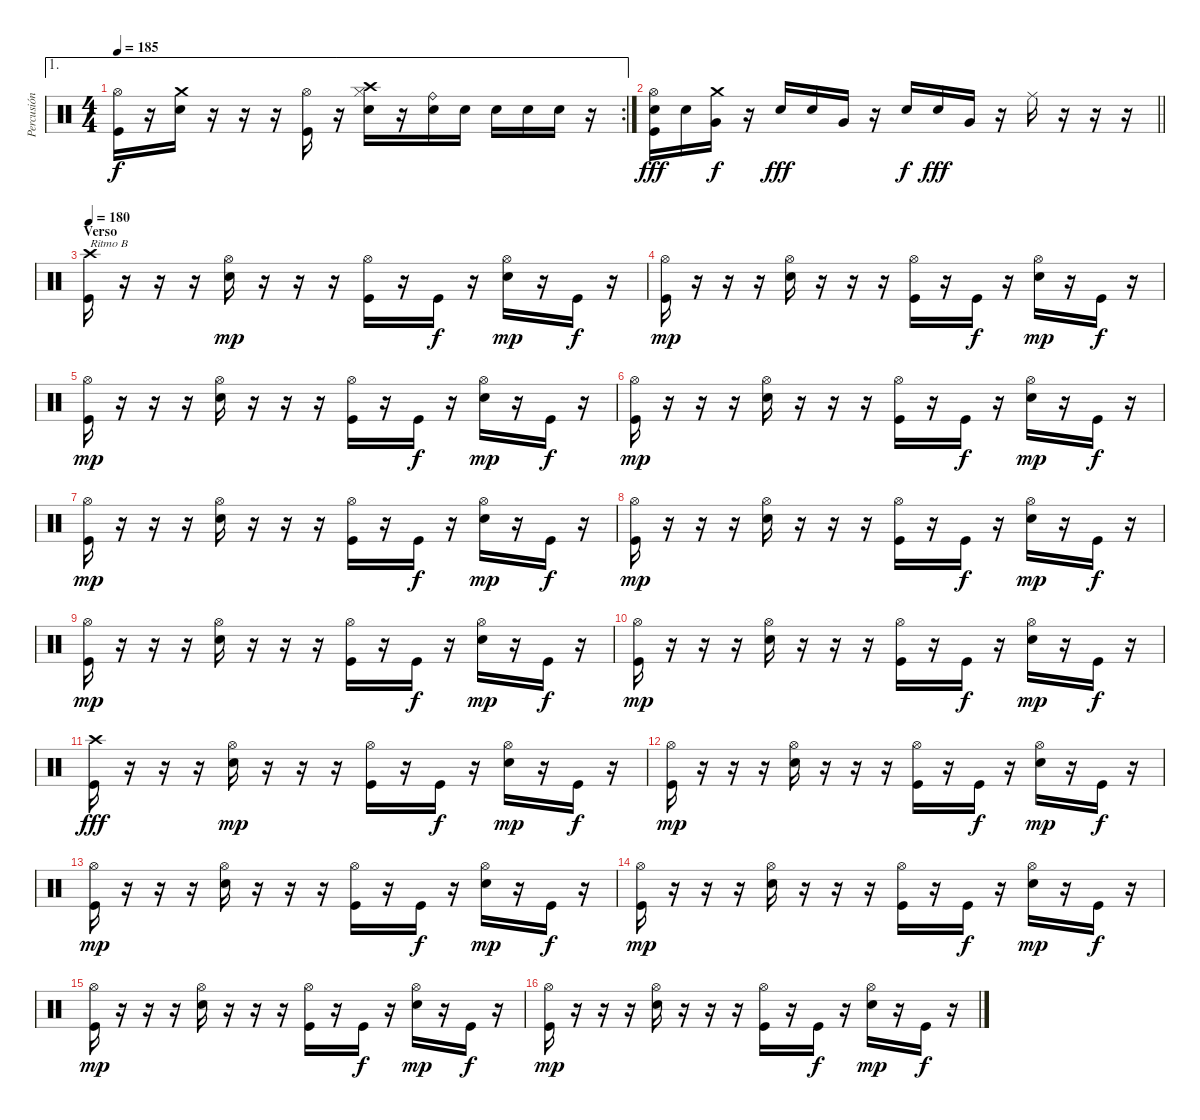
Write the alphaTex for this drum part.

\track ("Percusión" "Percusión") {instrument percussion}
\staff {score}
\articulation defaults
\ae 1
\rc 2
\ts (4 4)
\tempo 185
\clef neutral
\ks c
("Hi-Hat (open)" "Kick (hit)").16{dy f} r.16 ("Crash medium (hit)" "Electric Snare (hit)").16 r.16 r.16 r.16 ("Hi-Hat (open)" "Kick (hit)").16 r.16 ("Crash high (hit)" "Electric Snare (hit)" "Hi-Hat (closed)").16 r.16 ("Ride (bell)" "Electric Snare (hit)").16 "Electric Snare (hit)".16 "Electric Snare (hit)".16 "Electric Snare (hit)".16 "Electric Snare (hit)".16 r.16 |
\barLineRight lightlight
("Hi-Hat (open)" "Electric Snare (hit)" "Kick (hit)").16{dy fff} "Electric Snare (hit)".16 ("Crash medium (hit)" "Very Low Tom (hit)").16{dy f} r.16 "Electric Snare (hit)".16{dy fff} "Electric Snare (hit)".16 "Very Low Tom (hit)".16 r.16 "Electric Snare (hit)".16{dy f} "Electric Snare (hit)".16{dy fff} "Very Low Tom (hit)".16 r.16 "Ride (middle)".16 r.16 r.16 r.16 |
\section ("" "Verso")
\tempo 180
("Crash high (hit)" "Kick (hit)").16{txt "Ritmo B"} r.16 r.16 r.16 ("Hi-Hat (open)" "Snare (hit) 2").16{dy mp} r.16 r.16 r.16 ("Hi-Hat (open)" "Kick (hit)").16 r.16 "Kick (hit)".16{dy f} r.16 ("Hi-Hat (open)" "Snare (hit) 2").16{dy mp} r.16 "Kick (hit)".16{dy f} r.16 |
("Hi-Hat (open)" "Kick (hit)").16{dy mp} r.16 r.16 r.16 ("Hi-Hat (open)" "Snare (hit) 2").16 r.16 r.16 r.16 ("Hi-Hat (open)" "Kick (hit)").16 r.16 "Kick (hit)".16{dy f} r.16 ("Hi-Hat (open)" "Snare (hit) 2").16{dy mp} r.16 "Kick (hit)".16{dy f} r.16 |
("Hi-Hat (open)" "Kick (hit)").16{dy mp} r.16 r.16 r.16 ("Hi-Hat (open)" "Snare (hit) 2").16 r.16 r.16 r.16 ("Hi-Hat (open)" "Kick (hit)").16 r.16 "Kick (hit)".16{dy f} r.16 ("Hi-Hat (open)" "Snare (hit) 2").16{dy mp} r.16 "Kick (hit)".16{dy f} r.16 |
("Hi-Hat (open)" "Kick (hit)").16{dy mp} r.16 r.16 r.16 ("Hi-Hat (open)" "Snare (hit) 2").16 r.16 r.16 r.16 ("Hi-Hat (open)" "Kick (hit)").16 r.16 "Kick (hit)".16{dy f} r.16 ("Hi-Hat (open)" "Snare (hit) 2").16{dy mp} r.16 "Kick (hit)".16{dy f} r.16 |
("Hi-Hat (open)" "Kick (hit)").16{dy mp} r.16 r.16 r.16 ("Hi-Hat (open)" "Snare (hit) 2").16 r.16 r.16 r.16 ("Hi-Hat (open)" "Kick (hit)").16 r.16 "Kick (hit)".16{dy f} r.16 ("Hi-Hat (open)" "Snare (hit) 2").16{dy mp} r.16 "Kick (hit)".16{dy f} r.16 |
("Hi-Hat (open)" "Kick (hit)").16{dy mp} r.16 r.16 r.16 ("Hi-Hat (open)" "Snare (hit) 2").16 r.16 r.16 r.16 ("Hi-Hat (open)" "Kick (hit)").16 r.16 "Kick (hit)".16{dy f} r.16 ("Hi-Hat (open)" "Snare (hit) 2").16{dy mp} r.16 "Kick (hit)".16{dy f} r.16 |
("Hi-Hat (open)" "Kick (hit)").16{dy mp} r.16 r.16 r.16 ("Hi-Hat (open)" "Snare (hit) 2").16 r.16 r.16 r.16 ("Hi-Hat (open)" "Kick (hit)").16 r.16 "Kick (hit)".16{dy f} r.16 ("Hi-Hat (open)" "Snare (hit) 2").16{dy mp} r.16 "Kick (hit)".16{dy f} r.16 |
("Hi-Hat (open)" "Kick (hit)").16{dy mp} r.16 r.16 r.16 ("Hi-Hat (open)" "Snare (hit) 2").16 r.16 r.16 r.16 ("Hi-Hat (open)" "Kick (hit)").16 r.16 "Kick (hit)".16{dy f} r.16 ("Hi-Hat (open)" "Snare (hit) 2").16{dy mp} r.16 "Kick (hit)".16{dy f} r.16 |
("Crash high (hit)" "Kick (hit)").16{dy fff} r.16 r.16 r.16 ("Hi-Hat (open)" "Snare (hit) 2").16{dy mp} r.16 r.16 r.16 ("Hi-Hat (open)" "Kick (hit)").16 r.16 "Kick (hit)".16{dy f} r.16 ("Hi-Hat (open)" "Snare (hit) 2").16{dy mp} r.16 "Kick (hit)".16{dy f} r.16 |
("Hi-Hat (open)" "Kick (hit)").16{dy mp} r.16 r.16 r.16 ("Hi-Hat (open)" "Snare (hit) 2").16 r.16 r.16 r.16 ("Hi-Hat (open)" "Kick (hit)").16 r.16 "Kick (hit)".16{dy f} r.16 ("Hi-Hat (open)" "Snare (hit) 2").16{dy mp} r.16 "Kick (hit)".16{dy f} r.16 |
("Hi-Hat (open)" "Kick (hit)").16{dy mp} r.16 r.16 r.16 ("Hi-Hat (open)" "Snare (hit) 2").16 r.16 r.16 r.16 ("Hi-Hat (open)" "Kick (hit)").16 r.16 "Kick (hit)".16{dy f} r.16 ("Hi-Hat (open)" "Snare (hit) 2").16{dy mp} r.16 "Kick (hit)".16{dy f} r.16 |
("Hi-Hat (open)" "Kick (hit)").16{dy mp} r.16 r.16 r.16 ("Hi-Hat (open)" "Snare (hit) 2").16 r.16 r.16 r.16 ("Hi-Hat (open)" "Kick (hit)").16 r.16 "Kick (hit)".16{dy f} r.16 ("Hi-Hat (open)" "Snare (hit) 2").16{dy mp} r.16 "Kick (hit)".16{dy f} r.16 |
("Hi-Hat (open)" "Kick (hit)").16{dy mp} r.16 r.16 r.16 ("Hi-Hat (open)" "Snare (hit) 2").16 r.16 r.16 r.16 ("Hi-Hat (open)" "Kick (hit)").16 r.16 "Kick (hit)".16{dy f} r.16 ("Hi-Hat (open)" "Snare (hit) 2").16{dy mp} r.16 "Kick (hit)".16{dy f} r.16 |
("Hi-Hat (open)" "Kick (hit)").16{dy mp} r.16 r.16 r.16 ("Hi-Hat (open)" "Snare (hit) 2").16 r.16 r.16 r.16 ("Hi-Hat (open)" "Kick (hit)").16 r.16 "Kick (hit)".16{dy f} r.16 ("Hi-Hat (open)" "Snare (hit) 2").16{dy mp} r.16 "Kick (hit)".16{dy f} r.16
